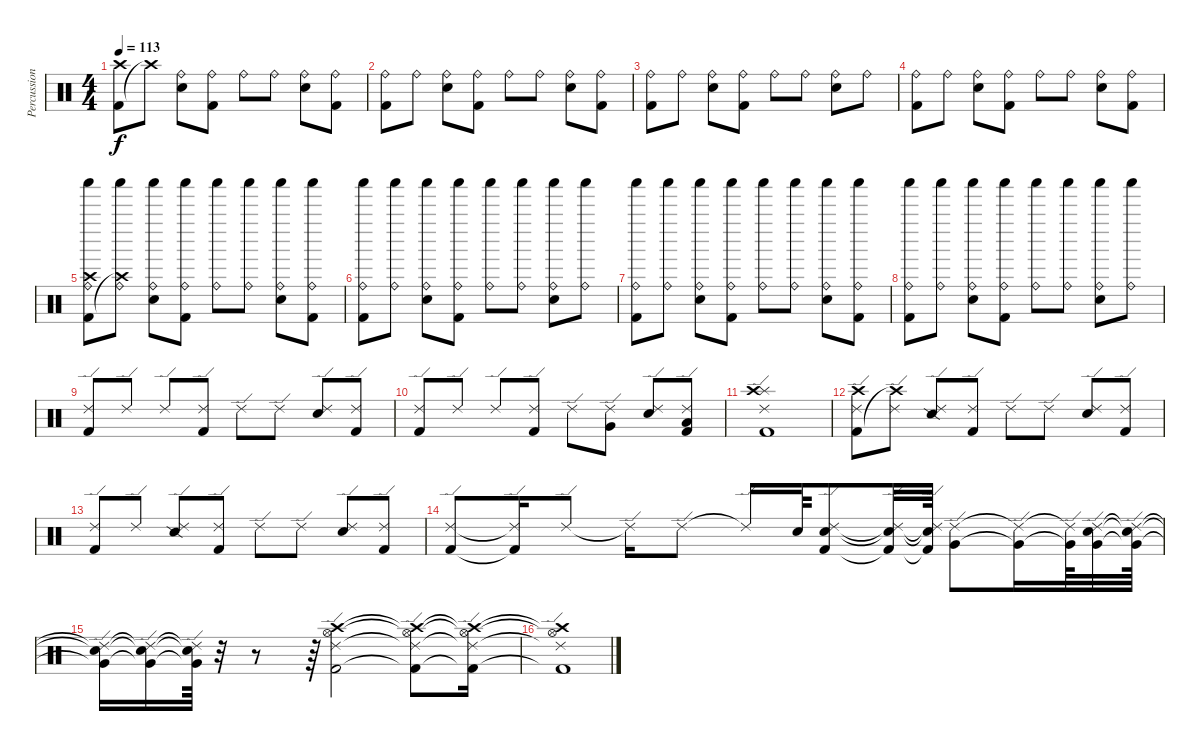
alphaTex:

\track ("Percussion" "Percussion") {instrument percussion}
\staff {score}
\articulation defaults
\ts (4 4)
\tempo 113
\clef neutral
\ks c
("Kick (hit) 2" "Crash high (hit)").8{dy f} "Crash high (hit)"{t}.8 ("Ride (bell)" "Snare (hit) 2").8 ("Ride (bell)" "Kick (hit) 2").8 "Ride (bell)".8 "Ride (bell)".8 ("Ride (bell)" "Snare (hit) 2").8 ("Ride (bell)" "Kick (hit) 2").8 |
("Ride (bell)" "Kick (hit) 2").8 "Ride (bell)".8 ("Ride (bell)" "Snare (hit) 2").8 ("Ride (bell)" "Kick (hit) 2").8 "Ride (bell)".8 "Ride (bell)".8 ("Ride (bell)" "Snare (hit) 2").8 ("Ride (bell)" "Kick (hit) 2").8 |
("Ride (bell)" "Kick (hit) 2").8 "Ride (bell)".8 ("Ride (bell)" "Snare (hit) 2").8 ("Ride (bell)" "Kick (hit) 2").8 "Ride (bell)".8 "Ride (bell)".8 ("Ride (bell)" "Snare (hit) 2").8 "Ride (bell)".8 |
("Ride (bell)" "Kick (hit) 2").8 "Ride (bell)".8 ("Ride (bell)" "Snare (hit) 2").8 ("Ride (bell)" "Kick (hit) 2").8 "Ride (bell)".8 "Ride (bell)".8 ("Ride (bell)" "Snare (hit) 2").8 ("Ride (bell)" "Kick (hit) 2").8 |
("Shaker (hit)" "Ride (bell)" "Kick (hit) 2" "Crash high (hit)").8 ("Shaker (hit)" "Ride (bell)" "Crash high (hit)"{t}).8 ("Shaker (hit)" "Ride (bell)" "Snare (hit) 2").8 ("Shaker (hit)" "Ride (bell)" "Kick (hit) 2").8 ("Shaker (hit)" "Ride (bell)").8 ("Shaker (hit)" "Ride (bell)").8 ("Shaker (hit)" "Ride (bell)" "Snare (hit) 2").8 ("Shaker (hit)" "Ride (bell)" "Kick (hit) 2").8 |
("Shaker (hit)" "Ride (bell)" "Kick (hit) 2").8 ("Shaker (hit)" "Ride (bell)").8 ("Shaker (hit)" "Ride (bell)" "Snare (hit) 2").8 ("Shaker (hit)" "Ride (bell)" "Kick (hit) 2").8 ("Shaker (hit)" "Ride (bell)").8 ("Shaker (hit)" "Ride (bell)").8 ("Shaker (hit)" "Ride (bell)" "Snare (hit) 2").8 ("Shaker (hit)" "Ride (bell)").8 |
("Shaker (hit)" "Ride (bell)" "Kick (hit) 2").8 ("Shaker (hit)" "Ride (bell)").8 ("Shaker (hit)" "Ride (bell)" "Snare (hit) 2").8 ("Shaker (hit)" "Ride (bell)" "Kick (hit) 2").8 ("Shaker (hit)" "Ride (bell)").8 ("Shaker (hit)" "Ride (bell)").8 ("Shaker (hit)" "Ride (bell)" "Snare (hit) 2").8 ("Shaker (hit)" "Ride (bell)" "Kick (hit) 2").8 |
("Shaker (hit)" "Ride (bell)" "Kick (hit) 2").8 ("Shaker (hit)" "Ride (bell)").8 ("Shaker (hit)" "Ride (bell)" "Snare (hit) 2").8 ("Shaker (hit)" "Ride (bell)" "Kick (hit) 2").8 ("Shaker (hit)" "Ride (bell)").8 ("Shaker (hit)" "Ride (bell)").8 ("Shaker (hit)" "Ride (bell)" "Snare (hit) 2").8 ("Shaker (hit)" "Ride (bell)").8 |
("Ride (edge) 2" "Kick (hit) 2").8 "Ride (edge) 2".8 "Ride (edge) 2".8 ("Ride (edge) 2" "Kick (hit) 2").8 "Ride (edge) 2".8 "Ride (edge) 2".8 ("Ride (edge) 2" "Snare (hit) 2").8 ("Ride (edge) 2" "Kick (hit) 2").8 |
("Ride (edge) 2" "Kick (hit) 2").8 "Ride (edge) 2".8 "Ride (edge) 2".8 ("Ride (edge) 2" "Kick (hit) 2").8 "Ride (edge) 2".8 ("Ride (edge) 2" "Very Low Tom (hit)").8 ("Ride (edge) 2" "Snare (hit) 2").8 ("Ride (edge) 2" "Kick (hit) 2" "Low Floor Tom (hit)").8 |
("Splash (hit)" "Ride (edge) 2" "Kick (hit) 2" "Crash high (hit)").1 |
("Ride (edge) 2" "Kick (hit) 2" "Crash high (hit)").8 ("Ride (edge) 2" "Crash high (hit)"{t}).8 ("Ride (edge) 2" "Snare (side stick) 2").8 ("Ride (edge) 2" "Kick (hit) 2").8 "Ride (edge) 2".8 "Ride (edge) 2".8 ("Ride (edge) 2" "Snare (hit) 2").8 ("Ride (edge) 2" "Kick (hit) 2").8 |
("Ride (edge) 2" "Kick (hit) 2").8 "Ride (edge) 2".8 ("Ride (edge) 2" "Snare (side stick) 2").8 ("Ride (edge) 2" "Kick (hit) 2").8 "Ride (edge) 2".8 "Ride (edge) 2".8 ("Ride (edge) 2" "Snare (hit) 2").8 ("Ride (edge) 2" "Kick (hit) 2").8 |
("Ride (edge) 2" "Kick (hit) 2").8 ("Ride (edge) 2"{t} "Kick (hit) 2"{t}).16 "Ride (edge) 2".8 "Ride (edge) 2"{t}.16 "Ride (edge) 2".8 "Ride (edge) 2"{t}.16 "Snare (hit) 2".64 ("Ride (edge) 2" "Kick (hit) 2" "Snare (hit) 2").8 ("Ride (edge) 2"{t} "Kick (hit) 2"{t} "Snare (hit) 2"{t}).32 ("Ride (edge) 2"{t} "Kick (hit) 2"{t} "Snare (hit) 2"{t}).64 ("Ride (edge) 2" "Very Low Tom (hit)").8 ("Ride (edge) 2"{t} "Very Low Tom (hit)"{t}).16 ("Ride (edge) 2"{t} "Very Low Tom (hit)"{t}).64 ("Ride (edge) 2" "Electric Snare (hit)" "Very Low Tom (hit)").32 ("Ride (edge) 2"{t} "Electric Snare (hit)"{t} "Very Low Tom (hit)"{t}).64 |
("Ride (edge) 2"{t} "Electric Snare (hit)"{t} "Very Low Tom (hit)"{t}).16 ("Ride (edge) 2"{t} "Electric Snare (hit)"{t} "Very Low Tom (hit)"{t}).16 ("Ride (edge) 2"{t} "Electric Snare (hit)"{t} "Very Low Tom (hit)"{t}).64 r.32 r.8 r.64 ("Ride (edge) 2" "Kick (hit) 2" "Crash high (hit)" "Hi-Hat (open)").2 ("Ride (edge) 2"{t} "Kick (hit) 2"{t} "Crash high (hit)"{t} "Hi-Hat (open)"{t}).8 ("Ride (edge) 2"{t} "Kick (hit) 2"{t} "Crash high (hit)"{t} "Hi-Hat (open)"{t}).16 |
("Ride (edge) 2"{t} "Kick (hit) 2"{t} "Crash high (hit)"{t} "Hi-Hat (open)"{t}).1
